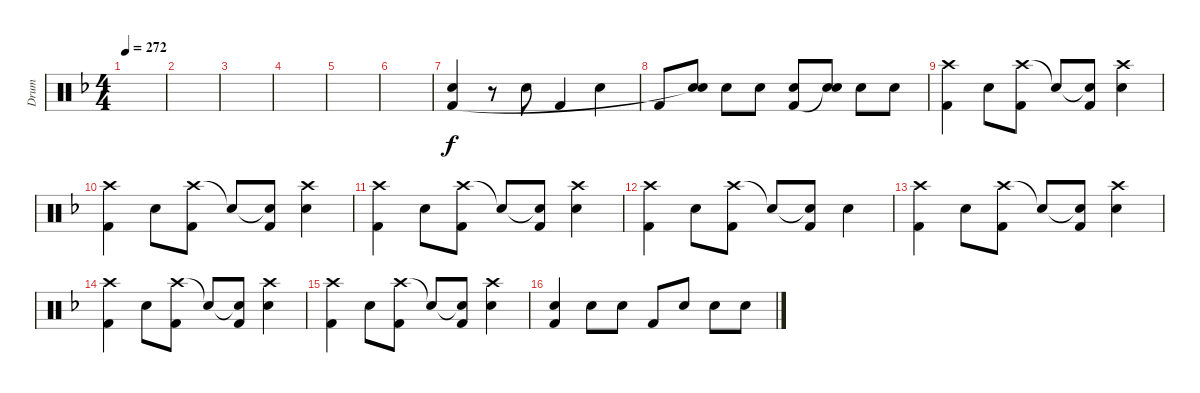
\track ("Drum" "Drum") {instrument percussion}
\staff {score}
\articulation defaults
\ts (4 4)
\tempo 272
\clef neutral
\ks f
|
|
|
|
|
|
("Electric Snare (hit)" "Kick (hit) 2").4 r.8 "Electric Snare (hit)".8 "Kick (hit) 2".4 "Electric Snare (hit)".4 |
"Kick (hit) 2".8 ("Electric Snare (hit)" "Snare (hit)"{t}).8 "Electric Snare (hit)".8 "Electric Snare (hit)".8 ("Electric Snare (hit)" "Kick (hit) 2").8 ("Electric Snare (hit)" "Snare (hit)"{t}).8 "Electric Snare (hit)".8 "Electric Snare (hit)".8 |
("Crash high (hit)" "Kick (hit) 2").4 "Electric Snare (hit)".8 ("Crash high (hit)" "Kick (hit) 2").8 "Snare (hit)"{t}.8 ("Snare (hit)"{t} "Kick (hit) 2").8 ("Crash high (hit)" "Electric Snare (hit)").4 |
("Crash high (hit)" "Kick (hit) 2").4 "Electric Snare (hit)".8 ("Crash high (hit)" "Kick (hit) 2").8 "Snare (hit)"{t}.8 ("Snare (hit)"{t} "Kick (hit) 2").8 ("Crash high (hit)" "Electric Snare (hit)").4 |
("Crash high (hit)" "Kick (hit) 2").4 "Electric Snare (hit)".8 ("Crash high (hit)" "Kick (hit) 2").8 "Snare (hit)"{t}.8 ("Snare (hit)"{t} "Kick (hit) 2").8 ("Crash high (hit)" "Electric Snare (hit)").4 |
("Crash high (hit)" "Kick (hit) 2").4 "Electric Snare (hit)".8 ("Crash high (hit)" "Kick (hit) 2").8 "Snare (hit)"{t}.8 ("Snare (hit)"{t} "Kick (hit) 2").8 "Electric Snare (hit)".4 |
("Crash high (hit)" "Kick (hit) 2").4 "Electric Snare (hit)".8 ("Crash high (hit)" "Kick (hit) 2").8 "Snare (hit)"{t}.8 ("Snare (hit)"{t} "Kick (hit) 2").8 ("Crash high (hit)" "Electric Snare (hit)").4 |
("Crash high (hit)" "Kick (hit) 2").4 "Electric Snare (hit)".8 ("Crash high (hit)" "Kick (hit) 2").8 "Snare (hit)"{t}.8 ("Snare (hit)"{t} "Kick (hit) 2").8 ("Crash high (hit)" "Electric Snare (hit)").4 |
("Crash high (hit)" "Kick (hit) 2").4 "Electric Snare (hit)".8 ("Crash high (hit)" "Kick (hit) 2").8 "Snare (hit)"{t}.8 ("Snare (hit)"{t} "Kick (hit) 2").8 ("Crash high (hit)" "Electric Snare (hit)").4 |
("Electric Snare (hit)" "Kick (hit) 2").4 "Electric Snare (hit)".8 "Electric Snare (hit)".8 "Kick (hit) 2".8 "Electric Snare (hit)".8 "Electric Snare (hit)".8 "Electric Snare (hit)".8
